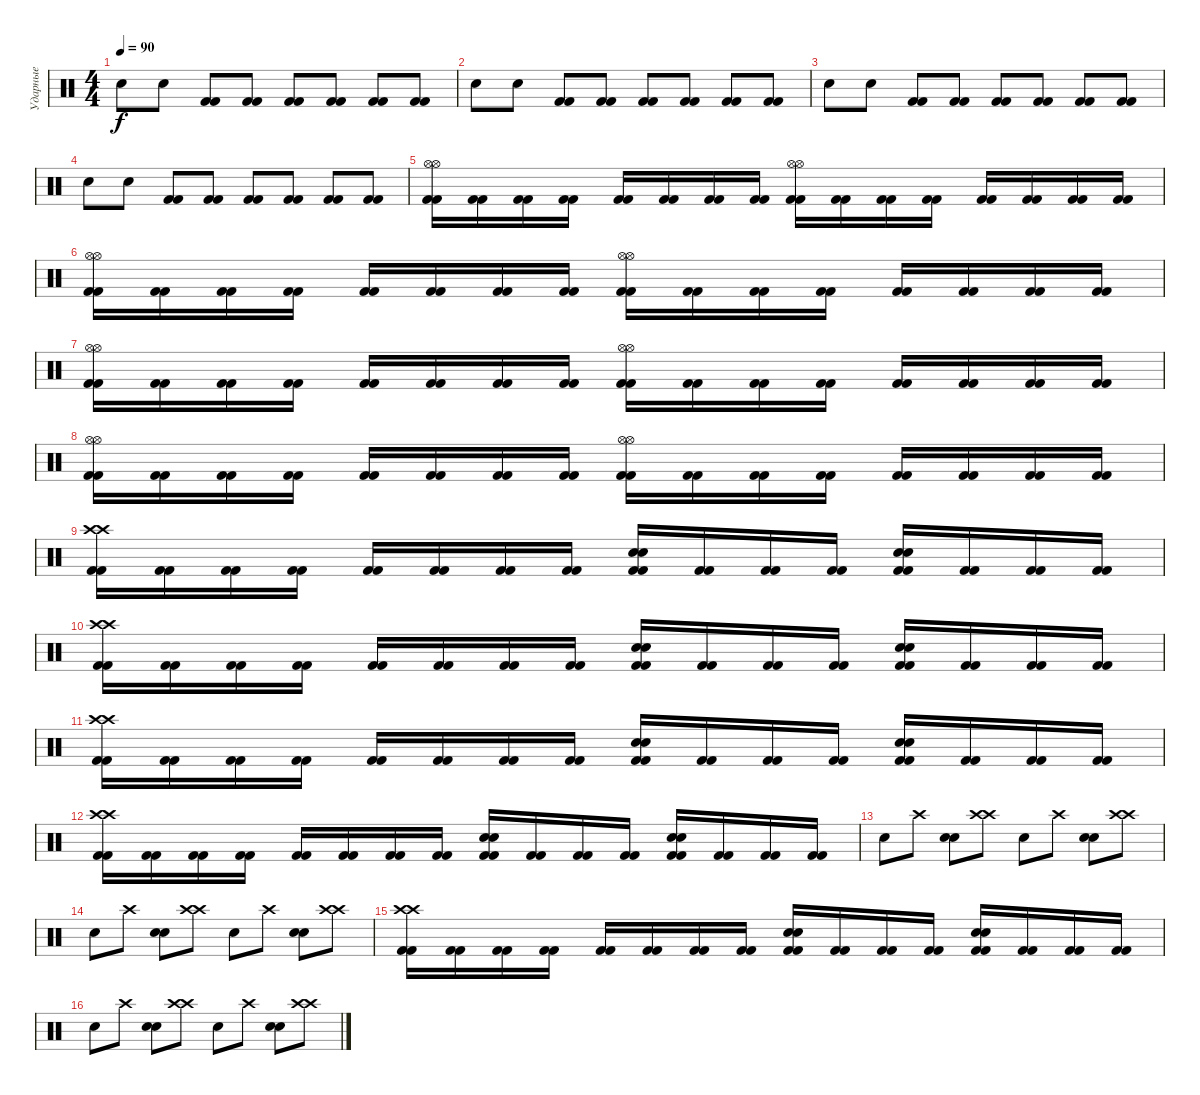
\track ("Ударные" "Ударные") {instrument percussion}
\staff {score}
\articulation defaults
\ts (4 4)
\tempo 90
\clef neutral
\ks c "Electric Snare (hit)".8{dy f} "Electric Snare (hit)".8
("Kick (hit) 2" "Kick (hit) 2").8 ("Kick (hit) 2" "Kick (hit) 2").8 ("Kick (hit) 2" "Kick (hit) 2").8 ("Kick (hit) 2" "Kick (hit) 2").8 ("Kick (hit) 2" "Kick (hit) 2").8 ("Kick (hit) 2" "Kick (hit) 2").8 |
"Electric Snare (hit)".8 "Electric Snare (hit)".8 ("Kick (hit) 2" "Kick (hit) 2").8 ("Kick (hit) 2" "Kick (hit) 2").8 ("Kick (hit) 2" "Kick (hit) 2").8 ("Kick (hit) 2" "Kick (hit) 2").8 ("Kick (hit) 2" "Kick (hit) 2").8 ("Kick (hit) 2" "Kick (hit) 2").8 |
"Electric Snare (hit)".8 "Electric Snare (hit)".8 ("Kick (hit) 2" "Kick (hit) 2").8 ("Kick (hit) 2" "Kick (hit) 2").8 ("Kick (hit) 2" "Kick (hit) 2").8 ("Kick (hit) 2" "Kick (hit) 2").8 ("Kick (hit) 2" "Kick (hit) 2").8 ("Kick (hit) 2" "Kick (hit) 2").8 |
"Electric Snare (hit)".8 "Electric Snare (hit)".8 ("Kick (hit) 2" "Kick (hit) 2").8 ("Kick (hit) 2" "Kick (hit) 2").8 ("Kick (hit) 2" "Kick (hit) 2").8 ("Kick (hit) 2" "Kick (hit) 2").8 ("Kick (hit) 2" "Kick (hit) 2").8 ("Kick (hit) 2" "Kick (hit) 2").8 |
("Kick (hit) 2" "Kick (hit) 2" "Hi-Hat (open)" "Hi-Hat (open)").16 ("Kick (hit) 2" "Kick (hit) 2").16 ("Kick (hit) 2" "Kick (hit) 2").16 ("Kick (hit) 2" "Kick (hit) 2").16 ("Kick (hit) 2" "Kick (hit) 2").16 ("Kick (hit) 2" "Kick (hit) 2").16 ("Kick (hit) 2" "Kick (hit) 2").16 ("Kick (hit) 2" "Kick (hit) 2").16 ("Kick (hit) 2" "Kick (hit) 2" "Hi-Hat (open)" "Hi-Hat (open)").16 ("Kick (hit) 2" "Kick (hit) 2").16 ("Kick (hit) 2" "Kick (hit) 2").16 ("Kick (hit) 2" "Kick (hit) 2").16 ("Kick (hit) 2" "Kick (hit) 2").16 ("Kick (hit) 2" "Kick (hit) 2").16 ("Kick (hit) 2" "Kick (hit) 2").16 ("Kick (hit) 2" "Kick (hit) 2").16 |
("Kick (hit) 2" "Kick (hit) 2" "Hi-Hat (open)" "Hi-Hat (open)").16 ("Kick (hit) 2" "Kick (hit) 2").16 ("Kick (hit) 2" "Kick (hit) 2").16 ("Kick (hit) 2" "Kick (hit) 2").16 ("Kick (hit) 2" "Kick (hit) 2").16 ("Kick (hit) 2" "Kick (hit) 2").16 ("Kick (hit) 2" "Kick (hit) 2").16 ("Kick (hit) 2" "Kick (hit) 2").16 ("Kick (hit) 2" "Kick (hit) 2" "Hi-Hat (open)" "Hi-Hat (open)").16 ("Kick (hit) 2" "Kick (hit) 2").16 ("Kick (hit) 2" "Kick (hit) 2").16 ("Kick (hit) 2" "Kick (hit) 2").16 ("Kick (hit) 2" "Kick (hit) 2").16 ("Kick (hit) 2" "Kick (hit) 2").16 ("Kick (hit) 2" "Kick (hit) 2").16 ("Kick (hit) 2" "Kick (hit) 2").16 |
("Kick (hit) 2" "Kick (hit) 2" "Hi-Hat (open)" "Hi-Hat (open)").16 ("Kick (hit) 2" "Kick (hit) 2").16 ("Kick (hit) 2" "Kick (hit) 2").16 ("Kick (hit) 2" "Kick (hit) 2").16 ("Kick (hit) 2" "Kick (hit) 2").16 ("Kick (hit) 2" "Kick (hit) 2").16 ("Kick (hit) 2" "Kick (hit) 2").16 ("Kick (hit) 2" "Kick (hit) 2").16 ("Kick (hit) 2" "Kick (hit) 2" "Hi-Hat (open)" "Hi-Hat (open)").16 ("Kick (hit) 2" "Kick (hit) 2").16 ("Kick (hit) 2" "Kick (hit) 2").16 ("Kick (hit) 2" "Kick (hit) 2").16 ("Kick (hit) 2" "Kick (hit) 2").16 ("Kick (hit) 2" "Kick (hit) 2").16 ("Kick (hit) 2" "Kick (hit) 2").16 ("Kick (hit) 2" "Kick (hit) 2").16 |
("Kick (hit) 2" "Kick (hit) 2" "Hi-Hat (open)" "Hi-Hat (open)").16 ("Kick (hit) 2" "Kick (hit) 2").16 ("Kick (hit) 2" "Kick (hit) 2").16 ("Kick (hit) 2" "Kick (hit) 2").16 ("Kick (hit) 2" "Kick (hit) 2").16 ("Kick (hit) 2" "Kick (hit) 2").16 ("Kick (hit) 2" "Kick (hit) 2").16 ("Kick (hit) 2" "Kick (hit) 2").16 ("Kick (hit) 2" "Kick (hit) 2" "Hi-Hat (open)" "Hi-Hat (open)").16 ("Kick (hit) 2" "Kick (hit) 2").16 ("Kick (hit) 2" "Kick (hit) 2").16 ("Kick (hit) 2" "Kick (hit) 2").16 ("Kick (hit) 2" "Kick (hit) 2").16 ("Kick (hit) 2" "Kick (hit) 2").16 ("Kick (hit) 2" "Kick (hit) 2").16 ("Kick (hit) 2" "Kick (hit) 2").16 |
("Kick (hit) 2" "Kick (hit) 2" "Crash high (hit)" "Crash high (hit)").16 ("Kick (hit) 2" "Kick (hit) 2").16 ("Kick (hit) 2" "Kick (hit) 2").16 ("Kick (hit) 2" "Kick (hit) 2").16 ("Kick (hit) 2" "Kick (hit) 2").16 ("Kick (hit) 2" "Kick (hit) 2").16 ("Kick (hit) 2" "Kick (hit) 2").16 ("Kick (hit) 2" "Kick (hit) 2").16 ("Kick (hit) 2" "Kick (hit) 2" "Electric Snare (hit)" "Electric Snare (hit)").16 ("Kick (hit) 2" "Kick (hit) 2").16 ("Kick (hit) 2" "Kick (hit) 2").16 ("Kick (hit) 2" "Kick (hit) 2").16 ("Kick (hit) 2" "Kick (hit) 2" "Electric Snare (hit)" "Electric Snare (hit)").16 ("Kick (hit) 2" "Kick (hit) 2").16 ("Kick (hit) 2" "Kick (hit) 2").16 ("Kick (hit) 2" "Kick (hit) 2").16 |
("Kick (hit) 2" "Kick (hit) 2" "Crash high (hit)" "Crash high (hit)").16 ("Kick (hit) 2" "Kick (hit) 2").16 ("Kick (hit) 2" "Kick (hit) 2").16 ("Kick (hit) 2" "Kick (hit) 2").16 ("Kick (hit) 2" "Kick (hit) 2").16 ("Kick (hit) 2" "Kick (hit) 2").16 ("Kick (hit) 2" "Kick (hit) 2").16 ("Kick (hit) 2" "Kick (hit) 2").16 ("Kick (hit) 2" "Kick (hit) 2" "Electric Snare (hit)" "Electric Snare (hit)").16 ("Kick (hit) 2" "Kick (hit) 2").16 ("Kick (hit) 2" "Kick (hit) 2").16 ("Kick (hit) 2" "Kick (hit) 2").16 ("Kick (hit) 2" "Kick (hit) 2" "Electric Snare (hit)" "Electric Snare (hit)").16 ("Kick (hit) 2" "Kick (hit) 2").16 ("Kick (hit) 2" "Kick (hit) 2").16 ("Kick (hit) 2" "Kick (hit) 2").16 |
("Kick (hit) 2" "Kick (hit) 2" "Crash high (hit)" "Crash high (hit)").16 ("Kick (hit) 2" "Kick (hit) 2").16 ("Kick (hit) 2" "Kick (hit) 2").16 ("Kick (hit) 2" "Kick (hit) 2").16 ("Kick (hit) 2" "Kick (hit) 2").16 ("Kick (hit) 2" "Kick (hit) 2").16 ("Kick (hit) 2" "Kick (hit) 2").16 ("Kick (hit) 2" "Kick (hit) 2").16 ("Kick (hit) 2" "Kick (hit) 2" "Electric Snare (hit)" "Electric Snare (hit)").16 ("Kick (hit) 2" "Kick (hit) 2").16 ("Kick (hit) 2" "Kick (hit) 2").16 ("Kick (hit) 2" "Kick (hit) 2").16 ("Kick (hit) 2" "Kick (hit) 2" "Electric Snare (hit)" "Electric Snare (hit)").16 ("Kick (hit) 2" "Kick (hit) 2").16 ("Kick (hit) 2" "Kick (hit) 2").16 ("Kick (hit) 2" "Kick (hit) 2").16 |
("Kick (hit) 2" "Kick (hit) 2" "Crash high (hit)" "Crash high (hit)").16 ("Kick (hit) 2" "Kick (hit) 2").16 ("Kick (hit) 2" "Kick (hit) 2").16 ("Kick (hit) 2" "Kick (hit) 2").16 ("Kick (hit) 2" "Kick (hit) 2").16 ("Kick (hit) 2" "Kick (hit) 2").16 ("Kick (hit) 2" "Kick (hit) 2").16 ("Kick (hit) 2" "Kick (hit) 2").16 ("Kick (hit) 2" "Kick (hit) 2" "Electric Snare (hit)" "Electric Snare (hit)").16 ("Kick (hit) 2" "Kick (hit) 2").16 ("Kick (hit) 2" "Kick (hit) 2").16 ("Kick (hit) 2" "Kick (hit) 2").16 ("Kick (hit) 2" "Kick (hit) 2" "Electric Snare (hit)" "Electric Snare (hit)").16 ("Kick (hit) 2" "Kick (hit) 2").16 ("Kick (hit) 2" "Kick (hit) 2").16 ("Kick (hit) 2" "Kick (hit) 2").16 |
"Electric Snare (hit)".8 "Crash high (hit)".8 ("Electric Snare (hit)" "Electric Snare (hit)").8 ("Crash high (hit)" "Crash high (hit)").8 "Electric Snare (hit)".8 "Crash high (hit)".8 ("Electric Snare (hit)" "Electric Snare (hit)").8 ("Crash high (hit)" "Crash high (hit)").8 |
"Electric Snare (hit)".8 "Crash high (hit)".8 ("Electric Snare (hit)" "Electric Snare (hit)").8 ("Crash high (hit)" "Crash high (hit)").8 "Electric Snare (hit)".8 "Crash high (hit)".8 ("Electric Snare (hit)" "Electric Snare (hit)").8 ("Crash high (hit)" "Crash high (hit)").8 |
("Kick (hit) 2" "Kick (hit) 2" "Crash high (hit)" "Crash high (hit)").16 ("Kick (hit) 2" "Kick (hit) 2").16 ("Kick (hit) 2" "Kick (hit) 2").16 ("Kick (hit) 2" "Kick (hit) 2").16 ("Kick (hit) 2" "Kick (hit) 2").16 ("Kick (hit) 2" "Kick (hit) 2").16 ("Kick (hit) 2" "Kick (hit) 2").16 ("Kick (hit) 2" "Kick (hit) 2").16 ("Kick (hit) 2" "Kick (hit) 2" "Electric Snare (hit)" "Electric Snare (hit)").16 ("Kick (hit) 2" "Kick (hit) 2").16 ("Kick (hit) 2" "Kick (hit) 2").16 ("Kick (hit) 2" "Kick (hit) 2").16 ("Kick (hit) 2" "Kick (hit) 2" "Electric Snare (hit)" "Electric Snare (hit)").16 ("Kick (hit) 2" "Kick (hit) 2").16 ("Kick (hit) 2" "Kick (hit) 2").16 ("Kick (hit) 2" "Kick (hit) 2").16 |
"Electric Snare (hit)".8 "Crash high (hit)".8 ("Electric Snare (hit)" "Electric Snare (hit)").8 ("Crash high (hit)" "Crash high (hit)").8 "Electric Snare (hit)".8 "Crash high (hit)".8 ("Electric Snare (hit)" "Electric Snare (hit)").8 ("Crash high (hit)" "Crash high (hit)").8
